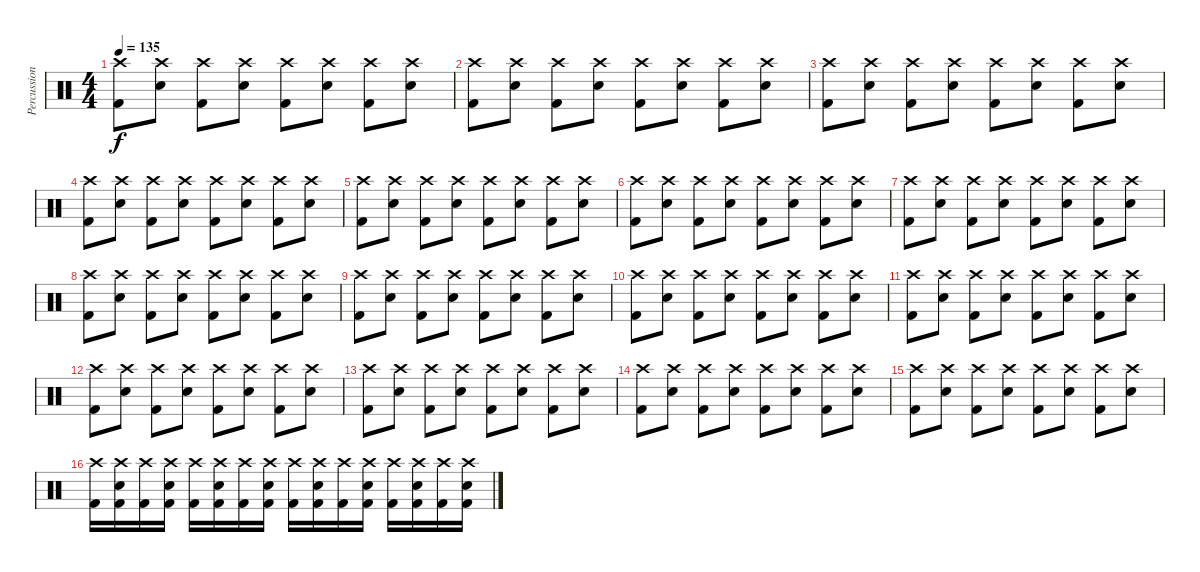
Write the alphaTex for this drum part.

\track ("Percussion" "Percussion") {instrument percussion}
\staff {score}
\articulation defaults
\ts (4 4)
\tempo 135
\clef neutral
\ks c
("Crash high (hit)" "Kick (hit) 2").8{dy f} ("Crash high (hit)" "Electric Snare (hit)").8 ("Crash high (hit)" "Kick (hit) 2").8 ("Crash high (hit)" "Electric Snare (hit)").8 ("Crash high (hit)" "Kick (hit) 2").8 ("Crash high (hit)" "Electric Snare (hit)").8 ("Crash high (hit)" "Kick (hit) 2").8 ("Crash high (hit)" "Electric Snare (hit)").8 |
("Crash high (hit)" "Kick (hit) 2").8 ("Crash high (hit)" "Electric Snare (hit)").8 ("Crash high (hit)" "Kick (hit) 2").8 ("Crash high (hit)" "Electric Snare (hit)").8 ("Crash high (hit)" "Kick (hit) 2").8 ("Crash high (hit)" "Electric Snare (hit)").8 ("Crash high (hit)" "Kick (hit) 2").8 ("Crash high (hit)" "Electric Snare (hit)").8 |
("Crash high (hit)" "Kick (hit) 2").8 ("Crash high (hit)" "Electric Snare (hit)").8 ("Crash high (hit)" "Kick (hit) 2").8 ("Crash high (hit)" "Electric Snare (hit)").8 ("Crash high (hit)" "Kick (hit) 2").8 ("Crash high (hit)" "Electric Snare (hit)").8 ("Crash high (hit)" "Kick (hit) 2").8 ("Crash high (hit)" "Electric Snare (hit)").8 |
("Crash high (hit)" "Kick (hit) 2").8 ("Crash high (hit)" "Electric Snare (hit)").8 ("Crash high (hit)" "Kick (hit) 2").8 ("Crash high (hit)" "Electric Snare (hit)").8 ("Crash high (hit)" "Kick (hit) 2").8 ("Crash high (hit)" "Electric Snare (hit)").8 ("Crash high (hit)" "Kick (hit) 2").8 ("Crash high (hit)" "Electric Snare (hit)").8 |
("Crash high (hit)" "Kick (hit) 2").8 ("Crash high (hit)" "Electric Snare (hit)").8 ("Crash high (hit)" "Kick (hit) 2").8 ("Crash high (hit)" "Electric Snare (hit)").8 ("Crash high (hit)" "Kick (hit) 2").8 ("Crash high (hit)" "Electric Snare (hit)").8 ("Crash high (hit)" "Kick (hit) 2").8 ("Crash high (hit)" "Electric Snare (hit)").8 |
("Crash high (hit)" "Kick (hit) 2").8 ("Crash high (hit)" "Electric Snare (hit)").8 ("Crash high (hit)" "Kick (hit) 2").8 ("Crash high (hit)" "Electric Snare (hit)").8 ("Crash high (hit)" "Kick (hit) 2").8 ("Crash high (hit)" "Electric Snare (hit)").8 ("Crash high (hit)" "Kick (hit) 2").8 ("Crash high (hit)" "Electric Snare (hit)").8 |
("Crash high (hit)" "Kick (hit) 2").8 ("Crash high (hit)" "Electric Snare (hit)").8 ("Crash high (hit)" "Kick (hit) 2").8 ("Crash high (hit)" "Electric Snare (hit)").8 ("Crash high (hit)" "Kick (hit) 2").8 ("Crash high (hit)" "Electric Snare (hit)").8 ("Crash high (hit)" "Kick (hit) 2").8 ("Crash high (hit)" "Electric Snare (hit)").8 |
("Crash high (hit)" "Kick (hit) 2").8 ("Crash high (hit)" "Electric Snare (hit)").8 ("Crash high (hit)" "Kick (hit) 2").8 ("Crash high (hit)" "Electric Snare (hit)").8 ("Crash high (hit)" "Kick (hit) 2").8 ("Crash high (hit)" "Electric Snare (hit)").8 ("Crash high (hit)" "Kick (hit) 2").8 ("Crash high (hit)" "Electric Snare (hit)").8 |
("Crash high (hit)" "Kick (hit) 2").8 ("Crash high (hit)" "Electric Snare (hit)").8 ("Crash high (hit)" "Kick (hit) 2").8 ("Crash high (hit)" "Electric Snare (hit)").8 ("Crash high (hit)" "Kick (hit) 2").8 ("Crash high (hit)" "Electric Snare (hit)").8 ("Crash high (hit)" "Kick (hit) 2").8 ("Crash high (hit)" "Electric Snare (hit)").8 |
("Crash high (hit)" "Kick (hit) 2").8 ("Crash high (hit)" "Electric Snare (hit)").8 ("Crash high (hit)" "Kick (hit) 2").8 ("Crash high (hit)" "Electric Snare (hit)").8 ("Crash high (hit)" "Kick (hit) 2").8 ("Crash high (hit)" "Electric Snare (hit)").8 ("Crash high (hit)" "Kick (hit) 2").8 ("Crash high (hit)" "Electric Snare (hit)").8 |
("Crash high (hit)" "Kick (hit) 2").8 ("Crash high (hit)" "Electric Snare (hit)").8 ("Crash high (hit)" "Kick (hit) 2").8 ("Crash high (hit)" "Electric Snare (hit)").8 ("Crash high (hit)" "Kick (hit) 2").8 ("Crash high (hit)" "Electric Snare (hit)").8 ("Crash high (hit)" "Kick (hit) 2").8 ("Crash high (hit)" "Electric Snare (hit)").8 |
("Crash high (hit)" "Kick (hit) 2").8 ("Crash high (hit)" "Electric Snare (hit)").8 ("Crash high (hit)" "Kick (hit) 2").8 ("Crash high (hit)" "Electric Snare (hit)").8 ("Crash high (hit)" "Kick (hit) 2").8 ("Crash high (hit)" "Electric Snare (hit)").8 ("Crash high (hit)" "Kick (hit) 2").8 ("Crash high (hit)" "Electric Snare (hit)").8 |
("Crash high (hit)" "Kick (hit) 2").8 ("Crash high (hit)" "Electric Snare (hit)").8 ("Crash high (hit)" "Kick (hit) 2").8 ("Crash high (hit)" "Electric Snare (hit)").8 ("Crash high (hit)" "Kick (hit) 2").8 ("Crash high (hit)" "Electric Snare (hit)").8 ("Crash high (hit)" "Kick (hit) 2").8 ("Crash high (hit)" "Electric Snare (hit)").8 |
("Crash high (hit)" "Kick (hit) 2").8 ("Crash high (hit)" "Electric Snare (hit)").8 ("Crash high (hit)" "Kick (hit) 2").8 ("Crash high (hit)" "Electric Snare (hit)").8 ("Crash high (hit)" "Kick (hit) 2").8 ("Crash high (hit)" "Electric Snare (hit)").8 ("Crash high (hit)" "Kick (hit) 2").8 ("Crash high (hit)" "Electric Snare (hit)").8 |
("Crash high (hit)" "Kick (hit) 2").8 ("Crash high (hit)" "Electric Snare (hit)").8 ("Crash high (hit)" "Kick (hit) 2").8 ("Crash high (hit)" "Electric Snare (hit)").8 ("Crash high (hit)" "Kick (hit) 2").8 ("Crash high (hit)" "Electric Snare (hit)").8 ("Crash high (hit)" "Kick (hit) 2").8 ("Crash high (hit)" "Electric Snare (hit)").8 |
("Crash high (hit)" "Kick (hit) 2").16 ("Crash high (hit)" "Electric Snare (hit)" "Kick (hit) 2").16 ("Crash high (hit)" "Kick (hit) 2").16 ("Crash high (hit)" "Electric Snare (hit)" "Kick (hit) 2").16 ("Crash high (hit)" "Kick (hit) 2").16 ("Crash high (hit)" "Electric Snare (hit)" "Kick (hit) 2").16 ("Crash high (hit)" "Kick (hit) 2").16 ("Crash high (hit)" "Electric Snare (hit)" "Kick (hit) 2").16 ("Crash high (hit)" "Kick (hit) 2").16 ("Crash high (hit)" "Electric Snare (hit)" "Kick (hit) 2").16 ("Crash high (hit)" "Kick (hit) 2").16 ("Crash high (hit)" "Electric Snare (hit)" "Kick (hit) 2").16 ("Crash high (hit)" "Kick (hit) 2").16 ("Crash high (hit)" "Electric Snare (hit)" "Kick (hit) 2").16 ("Crash high (hit)" "Kick (hit) 2").16 ("Crash high (hit)" "Electric Snare (hit)" "Kick (hit) 2").16
